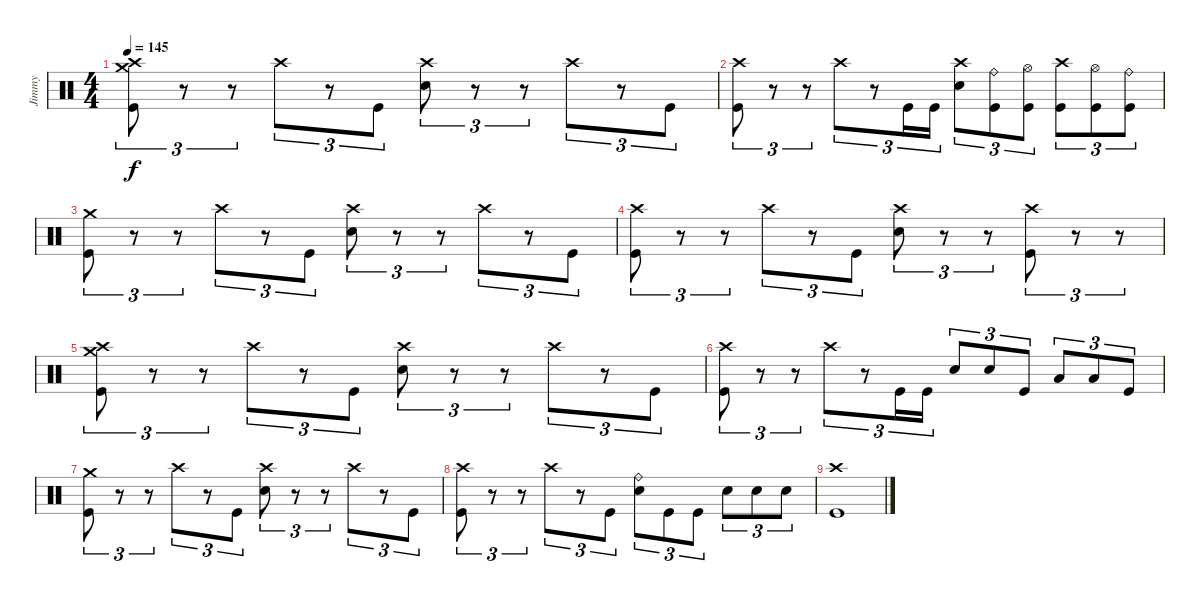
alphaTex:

\track ("Jimmy" "Jimmy") {instrument percussion}
\staff {score}
\articulation defaults
\ts (4 4)
\tempo 145
\clef neutral
\ks c
("Kick (hit)" "Crash high (hit)" "Crash medium (hit)").8{tu (3 2) dy f} r.8{tu (3 2)} r.8{tu (3 2)} "Crash high (hit)".8{tu (3 2)} r.8{tu (3 2)} "Kick (hit)".8{tu (3 2)} ("Crash high (hit)" "Snare (hit) 2").8{tu (3 2)} r.8{tu (3 2)} r.8{tu (3 2)} "Crash high (hit)".8{tu (3 2)} r.8{tu (3 2)} "Kick (hit)".8{tu (3 2)} |
("Kick (hit)" "Crash high (hit)").8{tu (3 2)} r.8{tu (3 2)} r.8{tu (3 2)} "Crash high (hit)".8{tu (3 2)} r.8{tu (3 2)} "Kick (hit)".16{tu (3 2)} "Kick (hit)".16{tu (3 2)} ("Crash high (hit)" "Snare (hit) 2").8{tu (3 2)} ("Kick (hit)" "Ride (bell)").8{tu (3 2)} ("Kick (hit)" "Hi-Hat (open)").8{tu (3 2)} ("Crash high (hit)" "Kick (hit)").8{tu (3 2)} ("Kick (hit)" "Hi-Hat (open)").8{tu (3 2)} ("Kick (hit)" "Ride (bell)").8{tu (3 2)} |
("Kick (hit)" "Crash medium (hit)").8{tu (3 2)} r.8{tu (3 2)} r.8{tu (3 2)} "Crash high (hit)".8{tu (3 2)} r.8{tu (3 2)} "Kick (hit)".8{tu (3 2)} ("Crash high (hit)" "Snare (hit) 2").8{tu (3 2)} r.8{tu (3 2)} r.8{tu (3 2)} "Crash high (hit)".8{tu (3 2)} r.8{tu (3 2)} "Kick (hit)".8{tu (3 2)} |
("Kick (hit)" "Crash high (hit)").8{tu (3 2)} r.8{tu (3 2)} r.8{tu (3 2)} "Crash high (hit)".8{tu (3 2)} r.8{tu (3 2)} "Kick (hit)".8{tu (3 2)} ("Crash high (hit)" "Snare (hit) 2").8{tu (3 2)} r.8{tu (3 2)} r.8{tu (3 2)} ("Crash high (hit)" "Kick (hit)").8{tu (3 2)} r.8{tu (3 2)} r.8{tu (3 2)} |
("Kick (hit)" "Crash high (hit)" "Crash medium (hit)").8{tu (3 2)} r.8{tu (3 2)} r.8{tu (3 2)} "Crash high (hit)".8{tu (3 2)} r.8{tu (3 2)} "Kick (hit)".8{tu (3 2)} ("Crash high (hit)" "Snare (hit) 2").8{tu (3 2)} r.8{tu (3 2)} r.8{tu (3 2)} "Crash high (hit)".8{tu (3 2)} r.8{tu (3 2)} "Kick (hit)".8{tu (3 2)} |
("Kick (hit)" "Crash high (hit)").8{tu (3 2)} r.8{tu (3 2)} r.8{tu (3 2)} "Crash high (hit)".8{tu (3 2)} r.8{tu (3 2)} "Kick (hit)".16{tu (3 2)} "Kick (hit)".16{tu (3 2)} "Snare (hit) 2".8{tu (3 2)} "Snare (hit) 2".8{tu (3 2)} "Kick (hit)".8{tu (3 2)} "Low Tom (hit)".8{tu (3 2)} "Low Tom (hit)".8{tu (3 2)} "Kick (hit)".8{tu (3 2)} |
("Kick (hit)" "Crash medium (hit)").8{tu (3 2)} r.8{tu (3 2)} r.8{tu (3 2)} "Crash high (hit)".8{tu (3 2)} r.8{tu (3 2)} "Kick (hit)".8{tu (3 2)} ("Crash high (hit)" "Snare (hit) 2").8{tu (3 2)} r.8{tu (3 2)} r.8{tu (3 2)} "Crash high (hit)".8{tu (3 2)} r.8{tu (3 2)} "Kick (hit)".8{tu (3 2)} |
("Kick (hit)" "Crash high (hit)").8{tu (3 2)} r.8{tu (3 2)} r.8{tu (3 2)} "Crash high (hit)".8{tu (3 2)} r.8{tu (3 2)} "Kick (hit)".8{tu (3 2)} ("Ride (bell)" "Snare (hit) 2").8{tu (3 2)} "Kick (hit)".8{tu (3 2)} "Kick (hit)".8{tu (3 2)} "Snare (hit) 2".8{tu (3 2)} "Snare (hit) 2".8{tu (3 2)} "Snare (hit) 2".8{tu (3 2)} |
("Kick (hit)" "Crash high (hit)").1
